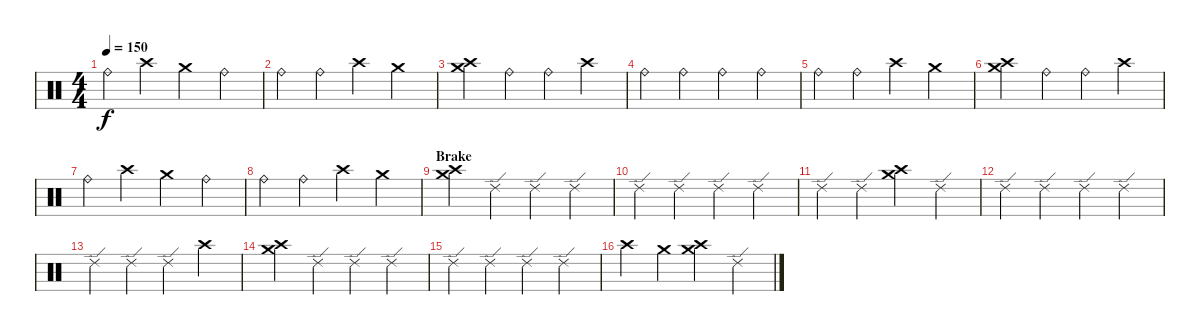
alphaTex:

\track "" {instrument percussion}
\staff {score}
\articulation defaults
\ts (4 4)
\tempo 150
\clef neutral
\ks c "Ride (bell)".4{dy f} "Crash high (hit)".4 "Crash medium (hit)".4 "Ride (bell)".4
|
"Ride (bell)".4 "Ride (bell)".4 "Crash high (hit)".4 "Crash medium (hit)".4 |
("Crash medium (hit)" "Crash high (hit)").4 "Ride (bell)".4 "Ride (bell)".4 "Crash high (hit)".4 |
"Ride (bell)".4 "Ride (bell)".4 "Ride (bell)".4 "Ride (bell)".4 |
"Ride (bell)".4 "Ride (bell)".4 "Crash high (hit)".4 "Crash medium (hit)".4 |
("Crash medium (hit)" "Crash high (hit)").4 "Ride (bell)".4 "Ride (bell)".4 "Crash high (hit)".4 |
"Ride (bell)".4 "Crash high (hit)".4 "Crash medium (hit)".4 "Ride (bell)".4 |
"Ride (bell)".4 "Ride (bell)".4 "Crash high (hit)".4 "Crash medium (hit)".4 |
\section ("" "Brake")
("Crash medium (hit)" "Crash high (hit)").4 "Ride (edge) 2".4 "Ride (edge) 2".4 "Ride (edge) 2".4 |
"Ride (edge) 2".4 "Ride (edge) 2".4 "Ride (edge) 2".4 "Ride (edge) 2".4 |
"Ride (edge) 2".4 "Ride (edge) 2".4 ("Crash medium (hit)" "Crash high (hit)").4 "Ride (edge) 2".4 |
"Ride (edge) 2".4 "Ride (edge) 2".4 "Ride (edge) 2".4 "Ride (edge) 2".4 |
"Ride (edge) 2".4 "Ride (edge) 2".4 "Ride (edge) 2".4 "Crash high (hit)".4 |
("Crash medium (hit)" "Crash high (hit)").4 "Ride (edge) 2".4 "Ride (edge) 2".4 "Ride (edge) 2".4 |
"Ride (edge) 2".4 "Ride (edge) 2".4 "Ride (edge) 2".4 "Ride (edge) 2".4 |
"Crash high (hit)".4 "Crash medium (hit)".4 ("Crash medium (hit)" "Crash high (hit)").4 "Ride (edge) 2".4
